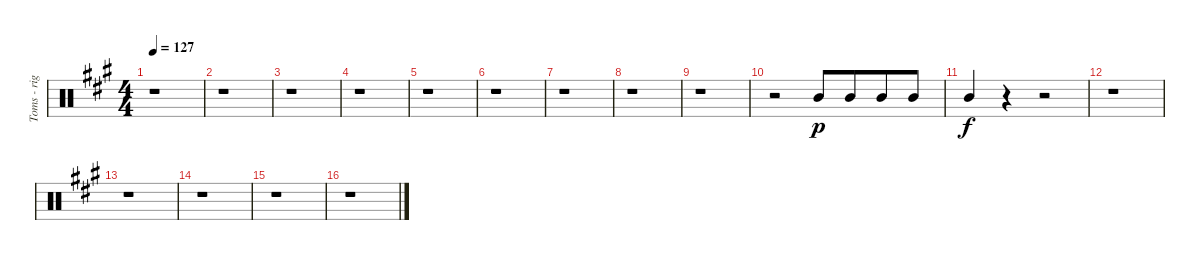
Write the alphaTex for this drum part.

\track ("Toms - right" "Toms - rig") {instrument percussion}
\staff {score}
\articulation defaults
\ts (4 4)
\tempo 127
\clef neutral
\ks a
r.1{dy f} |
r.1 |
r.1 |
r.1 |
r.1 |
r.1 |
r.1 |
r.1 |
r.1 |
r.2 "Mid Tom (hit)".8{dy p beam Up} "Mid Tom (hit)".8{beam Up beam merge} "Mid Tom (hit)".8{beam Up} "Mid Tom (hit)".8{beam Up} |
"Mid Tom (hit)".4{dy f beam Up} r.4 r.2 |
r.1 |
r.1 |
r.1 |
r.1 |
r.1
